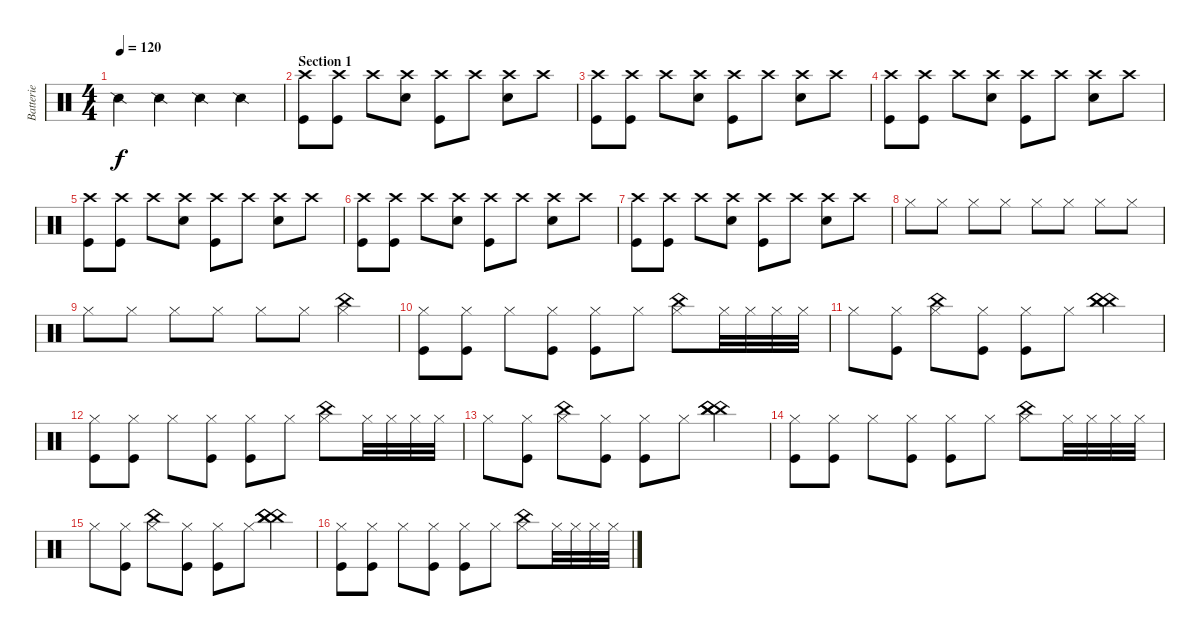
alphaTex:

\track ("Batterie" "Batterie") {instrument percussion}
\staff {score}
\articulation defaults
\ts (4 4)
\tempo 120
\clef neutral
\ks c "Snare (side stick) 2".4{dy f} "Snare (side stick) 2".4 "Snare (side stick) 2".4 "Snare (side stick) 2".4
|
\section ("" "Section 1")
("Crash high (hit)" "Kick (hit)").8 ("Crash high (hit)" "Kick (hit)").8 "Crash high (hit)".8 ("Crash high (hit)" "Snare (hit) 2").8 ("Crash high (hit)" "Kick (hit)").8 "Crash high (hit)".8 ("Crash high (hit)" "Snare (hit) 2").8 "Crash high (hit)".8 |
("Crash high (hit)" "Kick (hit)").8 ("Crash high (hit)" "Kick (hit)").8 "Crash high (hit)".8 ("Crash high (hit)" "Snare (hit) 2").8 ("Crash high (hit)" "Kick (hit)").8 "Crash high (hit)".8 ("Crash high (hit)" "Snare (hit) 2").8 "Crash high (hit)".8 |
("Crash high (hit)" "Kick (hit)").8 ("Crash high (hit)" "Kick (hit)").8 "Crash high (hit)".8 ("Crash high (hit)" "Snare (hit) 2").8 ("Crash high (hit)" "Kick (hit)").8 "Crash high (hit)".8 ("Crash high (hit)" "Snare (hit) 2").8 "Crash high (hit)".8 |
("Crash high (hit)" "Kick (hit)").8 ("Crash high (hit)" "Kick (hit)").8 "Crash high (hit)".8 ("Crash high (hit)" "Snare (hit) 2").8 ("Crash high (hit)" "Kick (hit)").8 "Crash high (hit)".8 ("Crash high (hit)" "Snare (hit) 2").8 "Crash high (hit)".8 |
("Crash high (hit)" "Kick (hit)").8 ("Crash high (hit)" "Kick (hit)").8 "Crash high (hit)".8 ("Crash high (hit)" "Snare (hit) 2").8 ("Crash high (hit)" "Kick (hit)").8 "Crash high (hit)".8 ("Crash high (hit)" "Snare (hit) 2").8 "Crash high (hit)".8 |
("Crash high (hit)" "Kick (hit)").8 ("Crash high (hit)" "Kick (hit)").8 "Crash high (hit)".8 ("Crash high (hit)" "Snare (hit) 2").8 ("Crash high (hit)" "Kick (hit)").8 "Crash high (hit)".8 ("Crash high (hit)" "Snare (hit) 2").8 "Crash high (hit)".8 |
"Hi-Hat (closed)".8 "Hi-Hat (closed)".8 "Hi-Hat (closed)".8 "Hi-Hat (closed)".8 "Hi-Hat (closed)".8 "Hi-Hat (closed)".8 "Hi-Hat (closed)".8 "Hi-Hat (closed)".8 |
"Hi-Hat (closed)".8 "Hi-Hat (closed)".8 "Hi-Hat (closed)".8 "Hi-Hat (closed)".8 "Hi-Hat (closed)".8 "Hi-Hat (closed)".8 ("China (hit)" "Hi-Hat (closed)").4 |
("Hi-Hat (closed)" "Kick (hit)").8 ("Hi-Hat (closed)" "Kick (hit)").8 "Hi-Hat (closed)".8 ("Hi-Hat (closed)" "Kick (hit)").8 ("Hi-Hat (closed)" "Kick (hit)").8 "Hi-Hat (closed)".8 ("Hi-Hat (closed)" "China (hit)").8 "Hi-Hat (closed)".32 "Hi-Hat (closed)".32 "Hi-Hat (closed)".32 "Hi-Hat (closed)".32 |
"Hi-Hat (closed)".8 ("Hi-Hat (closed)" "Kick (hit)").8 ("Hi-Hat (closed)" "China (hit)").8 ("Hi-Hat (closed)" "Kick (hit)").8 ("Hi-Hat (closed)" "Kick (hit)").8 "Hi-Hat (closed)".8 ("China (hit)" "China (hit)" "China (hit)").4 |
("Hi-Hat (closed)" "Kick (hit)").8 ("Hi-Hat (closed)" "Kick (hit)").8 "Hi-Hat (closed)".8 ("Hi-Hat (closed)" "Kick (hit)").8 ("Hi-Hat (closed)" "Kick (hit)").8 "Hi-Hat (closed)".8 ("Hi-Hat (closed)" "China (hit)").8 "Hi-Hat (closed)".32 "Hi-Hat (closed)".32 "Hi-Hat (closed)".32 "Hi-Hat (closed)".32 |
"Hi-Hat (closed)".8 ("Hi-Hat (closed)" "Kick (hit)").8 ("Hi-Hat (closed)" "China (hit)").8 ("Hi-Hat (closed)" "Kick (hit)").8 ("Hi-Hat (closed)" "Kick (hit)").8 "Hi-Hat (closed)".8 ("China (hit)" "China (hit)" "China (hit)").4 |
("Hi-Hat (closed)" "Kick (hit)").8 ("Hi-Hat (closed)" "Kick (hit)").8 "Hi-Hat (closed)".8 ("Hi-Hat (closed)" "Kick (hit)").8 ("Hi-Hat (closed)" "Kick (hit)").8 "Hi-Hat (closed)".8 ("Hi-Hat (closed)" "China (hit)").8 "Hi-Hat (closed)".32 "Hi-Hat (closed)".32 "Hi-Hat (closed)".32 "Hi-Hat (closed)".32 |
"Hi-Hat (closed)".8 ("Hi-Hat (closed)" "Kick (hit)").8 ("Hi-Hat (closed)" "China (hit)").8 ("Hi-Hat (closed)" "Kick (hit)").8 ("Hi-Hat (closed)" "Kick (hit)").8 "Hi-Hat (closed)".8 ("China (hit)" "China (hit)" "China (hit)").4 |
("Hi-Hat (closed)" "Kick (hit)").8 ("Hi-Hat (closed)" "Kick (hit)").8 "Hi-Hat (closed)".8 ("Hi-Hat (closed)" "Kick (hit)").8 ("Hi-Hat (closed)" "Kick (hit)").8 "Hi-Hat (closed)".8 ("Hi-Hat (closed)" "China (hit)").8 "Hi-Hat (closed)".32 "Hi-Hat (closed)".32 "Hi-Hat (closed)".32 "Hi-Hat (closed)".32
